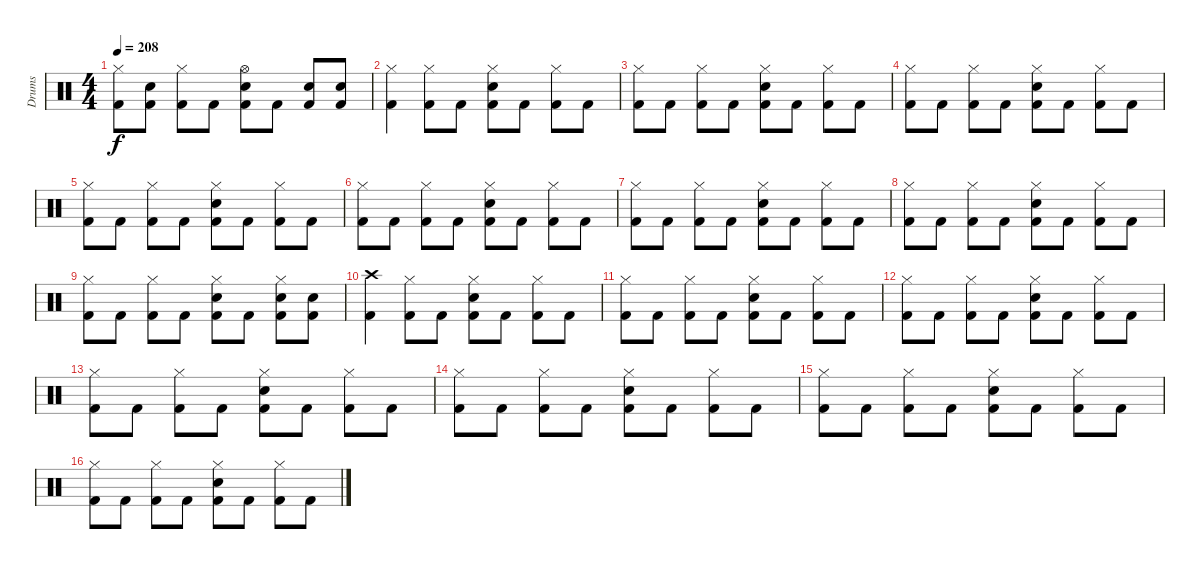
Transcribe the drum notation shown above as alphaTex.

\track ("Drums" "Drums") {instrument percussion}
\staff {score}
\articulation defaults
\ts (4 4)
\tempo 208
\clef neutral
\ks c
("Hi-Hat (closed)" "Kick (hit) 2").8{dy f} ("Electric Snare (hit)" "Kick (hit) 2").8 ("Hi-Hat (closed)" "Kick (hit) 2").8 "Kick (hit) 2".8 ("Hi-Hat (open)" "Electric Snare (hit)" "Kick (hit) 2").8 "Kick (hit) 2".8 ("Electric Snare (hit)" "Kick (hit) 2").8 ("Electric Snare (hit)" "Kick (hit) 2").8 |
("Hi-Hat (closed)" "Kick (hit) 2").4 ("Hi-Hat (closed)" "Kick (hit) 2").8 "Kick (hit) 2".8 ("Hi-Hat (closed)" "Electric Snare (hit)" "Kick (hit) 2").8 "Kick (hit) 2".8 ("Hi-Hat (closed)" "Kick (hit) 2").8 "Kick (hit) 2".8 |
("Hi-Hat (closed)" "Kick (hit) 2").8 "Kick (hit) 2".8 ("Hi-Hat (closed)" "Kick (hit) 2").8 "Kick (hit) 2".8 ("Hi-Hat (closed)" "Electric Snare (hit)" "Kick (hit) 2").8 "Kick (hit) 2".8 ("Hi-Hat (closed)" "Kick (hit) 2").8 "Kick (hit) 2".8 |
("Hi-Hat (closed)" "Kick (hit) 2").8 "Kick (hit) 2".8 ("Hi-Hat (closed)" "Kick (hit) 2").8 "Kick (hit) 2".8 ("Hi-Hat (closed)" "Electric Snare (hit)" "Kick (hit) 2").8 "Kick (hit) 2".8 ("Hi-Hat (closed)" "Kick (hit) 2").8 "Kick (hit) 2".8 |
("Hi-Hat (closed)" "Kick (hit) 2").8 "Kick (hit) 2".8 ("Hi-Hat (closed)" "Kick (hit) 2").8 "Kick (hit) 2".8 ("Hi-Hat (closed)" "Electric Snare (hit)" "Kick (hit) 2").8 "Kick (hit) 2".8 ("Hi-Hat (closed)" "Kick (hit) 2").8 "Kick (hit) 2".8 |
("Hi-Hat (closed)" "Kick (hit) 2").8 "Kick (hit) 2".8 ("Hi-Hat (closed)" "Kick (hit) 2").8 "Kick (hit) 2".8 ("Hi-Hat (closed)" "Electric Snare (hit)" "Kick (hit) 2").8 "Kick (hit) 2".8 ("Hi-Hat (closed)" "Kick (hit) 2").8 "Kick (hit) 2".8 |
("Hi-Hat (closed)" "Kick (hit) 2").8 "Kick (hit) 2".8 ("Hi-Hat (closed)" "Kick (hit) 2").8 "Kick (hit) 2".8 ("Hi-Hat (closed)" "Electric Snare (hit)" "Kick (hit) 2").8 "Kick (hit) 2".8 ("Hi-Hat (closed)" "Kick (hit) 2").8 "Kick (hit) 2".8 |
("Hi-Hat (closed)" "Kick (hit) 2").8 "Kick (hit) 2".8 ("Hi-Hat (closed)" "Kick (hit) 2").8 "Kick (hit) 2".8 ("Hi-Hat (closed)" "Electric Snare (hit)" "Kick (hit) 2").8 "Kick (hit) 2".8 ("Hi-Hat (closed)" "Kick (hit) 2").8 "Kick (hit) 2".8 |
("Hi-Hat (closed)" "Kick (hit) 2").8 "Kick (hit) 2".8 ("Hi-Hat (closed)" "Kick (hit) 2").8 "Kick (hit) 2".8 ("Hi-Hat (closed)" "Electric Snare (hit)" "Kick (hit) 2").8 "Kick (hit) 2".8 ("Hi-Hat (closed)" "Electric Snare (hit)" "Kick (hit) 2").8 ("Electric Snare (hit)" "Kick (hit) 2").8 |
("Crash high (hit)" "Kick (hit) 2").4 ("Hi-Hat (closed)" "Kick (hit) 2").8 "Kick (hit) 2".8 ("Hi-Hat (closed)" "Electric Snare (hit)" "Kick (hit) 2").8 "Kick (hit) 2".8 ("Hi-Hat (closed)" "Kick (hit) 2").8 "Kick (hit) 2".8 |
("Hi-Hat (closed)" "Kick (hit) 2").8 "Kick (hit) 2".8 ("Hi-Hat (closed)" "Kick (hit) 2").8 "Kick (hit) 2".8 ("Hi-Hat (closed)" "Electric Snare (hit)" "Kick (hit) 2").8 "Kick (hit) 2".8 ("Hi-Hat (closed)" "Kick (hit) 2").8 "Kick (hit) 2".8 |
("Hi-Hat (closed)" "Kick (hit) 2").8 "Kick (hit) 2".8 ("Hi-Hat (closed)" "Kick (hit) 2").8 "Kick (hit) 2".8 ("Hi-Hat (closed)" "Electric Snare (hit)" "Kick (hit) 2").8 "Kick (hit) 2".8 ("Hi-Hat (closed)" "Kick (hit) 2").8 "Kick (hit) 2".8 |
("Hi-Hat (closed)" "Kick (hit) 2").8 "Kick (hit) 2".8 ("Hi-Hat (closed)" "Kick (hit) 2").8 "Kick (hit) 2".8 ("Hi-Hat (closed)" "Electric Snare (hit)" "Kick (hit) 2").8 "Kick (hit) 2".8 ("Hi-Hat (closed)" "Kick (hit) 2").8 "Kick (hit) 2".8 |
("Hi-Hat (closed)" "Kick (hit) 2").8 "Kick (hit) 2".8 ("Hi-Hat (closed)" "Kick (hit) 2").8 "Kick (hit) 2".8 ("Hi-Hat (closed)" "Electric Snare (hit)" "Kick (hit) 2").8 "Kick (hit) 2".8 ("Hi-Hat (closed)" "Kick (hit) 2").8 "Kick (hit) 2".8 |
("Hi-Hat (closed)" "Kick (hit) 2").8 "Kick (hit) 2".8 ("Hi-Hat (closed)" "Kick (hit) 2").8 "Kick (hit) 2".8 ("Hi-Hat (closed)" "Electric Snare (hit)" "Kick (hit) 2").8 "Kick (hit) 2".8 ("Hi-Hat (closed)" "Kick (hit) 2").8 "Kick (hit) 2".8 |
("Hi-Hat (closed)" "Kick (hit) 2").8 "Kick (hit) 2".8 ("Hi-Hat (closed)" "Kick (hit) 2").8 "Kick (hit) 2".8 ("Hi-Hat (closed)" "Electric Snare (hit)" "Kick (hit) 2").8 "Kick (hit) 2".8 ("Hi-Hat (closed)" "Kick (hit) 2").8 "Kick (hit) 2".8
